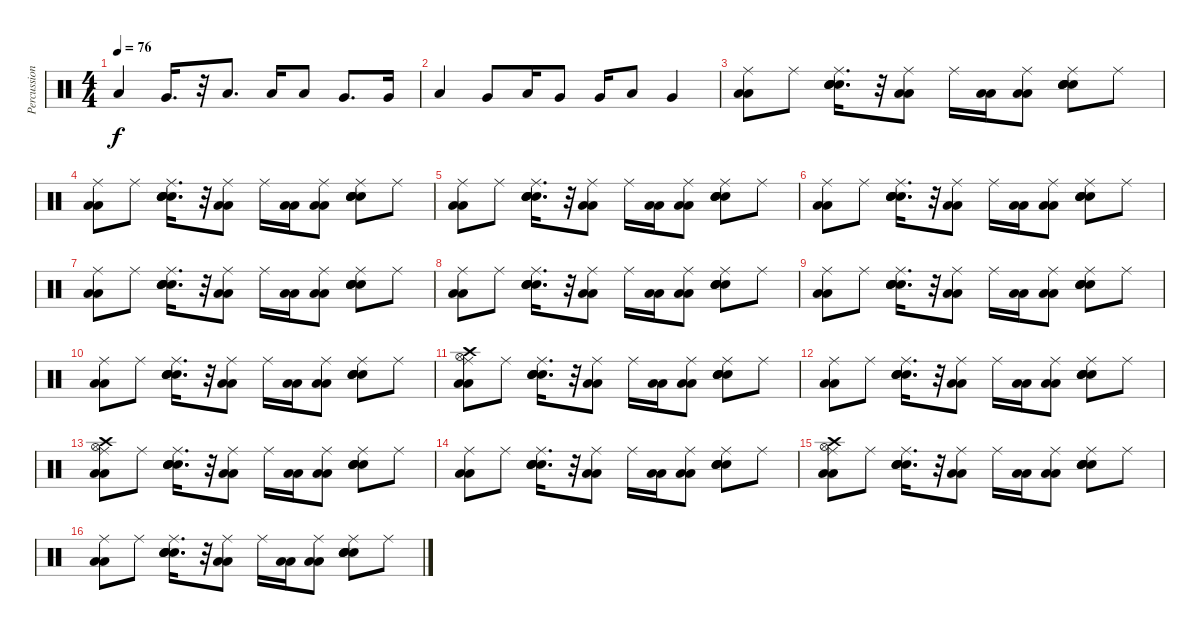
\track ("Percussions" "Percussion") {instrument percussion}
\staff {score}
\articulation defaults
\ts (4 4)
\tempo 76
\clef neutral
\ks c "Low Floor Tom (hit)".4{dy f} "Very Low Tom (hit)".16{d}
r.32 "Low Floor Tom (hit)".8{d} "Low Floor Tom (hit)".16 "Low Floor Tom (hit)".8 "Very Low Tom (hit)".8{d} "Very Low Tom (hit)".16 |
"Low Floor Tom (hit)".4 "Very Low Tom (hit)".8 "Low Floor Tom (hit)".16 "Very Low Tom (hit)".8 "Very Low Tom (hit)".16 "Low Floor Tom (hit)".8 "Very Low Tom (hit)".4 |
("Low Floor Tom (hit)" "Low Floor Tom (hit)" "Ride (middle)").8{volume 7} "Ride (middle)".8 ("Electric Snare (hit)" "Electric Snare (hit)" "Snare (hit) 2" "Ride (middle)" "Snare (hit) 2").16{d} r.32 ("Low Floor Tom (hit)" "Low Floor Tom (hit)" "Ride (middle)").8 "Ride (middle)".16 ("Low Floor Tom (hit)" "Low Floor Tom (hit)").16 ("Low Floor Tom (hit)" "Low Floor Tom (hit)" "Ride (middle)").8 ("Electric Snare (hit)" "Electric Snare (hit)" "Snare (hit) 2" "Ride (middle)" "Snare (hit) 2").8 "Ride (middle)".8 |
("Low Floor Tom (hit)" "Low Floor Tom (hit)" "Ride (middle)").8 "Ride (middle)".8 ("Electric Snare (hit)" "Electric Snare (hit)" "Snare (hit) 2" "Ride (middle)" "Snare (hit) 2").16{d} r.32 ("Low Floor Tom (hit)" "Low Floor Tom (hit)" "Ride (middle)").8 "Ride (middle)".16 ("Low Floor Tom (hit)" "Low Floor Tom (hit)").16 ("Low Floor Tom (hit)" "Low Floor Tom (hit)" "Ride (middle)").8 ("Electric Snare (hit)" "Electric Snare (hit)" "Snare (hit) 2" "Ride (middle)" "Snare (hit) 2").8 "Ride (middle)".8 |
("Low Floor Tom (hit)" "Low Floor Tom (hit)" "Ride (middle)").8 "Ride (middle)".8 ("Electric Snare (hit)" "Electric Snare (hit)" "Snare (hit) 2" "Ride (middle)" "Snare (hit) 2").16{d} r.32 ("Low Floor Tom (hit)" "Low Floor Tom (hit)" "Ride (middle)").8 "Ride (middle)".16 ("Low Floor Tom (hit)" "Low Floor Tom (hit)").16 ("Low Floor Tom (hit)" "Low Floor Tom (hit)" "Ride (middle)").8 ("Electric Snare (hit)" "Electric Snare (hit)" "Snare (hit) 2" "Ride (middle)" "Snare (hit) 2").8 "Ride (middle)".8 |
("Low Floor Tom (hit)" "Low Floor Tom (hit)" "Ride (middle)").8 "Ride (middle)".8 ("Electric Snare (hit)" "Electric Snare (hit)" "Snare (hit) 2" "Ride (middle)" "Snare (hit) 2").16{d} r.32 ("Low Floor Tom (hit)" "Low Floor Tom (hit)" "Ride (middle)").8 "Ride (middle)".16 ("Low Floor Tom (hit)" "Low Floor Tom (hit)").16 ("Low Floor Tom (hit)" "Low Floor Tom (hit)" "Ride (middle)").8 ("Electric Snare (hit)" "Electric Snare (hit)" "Snare (hit) 2" "Ride (middle)" "Snare (hit) 2").8 "Ride (middle)".8 |
("Low Floor Tom (hit)" "Low Floor Tom (hit)" "Ride (middle)").8 "Ride (middle)".8 ("Electric Snare (hit)" "Electric Snare (hit)" "Snare (hit) 2" "Ride (middle)" "Snare (hit) 2").16{d} r.32 ("Low Floor Tom (hit)" "Low Floor Tom (hit)" "Ride (middle)").8 "Ride (middle)".16 ("Low Floor Tom (hit)" "Low Floor Tom (hit)").16 ("Low Floor Tom (hit)" "Low Floor Tom (hit)" "Ride (middle)").8 ("Electric Snare (hit)" "Electric Snare (hit)" "Snare (hit) 2" "Ride (middle)" "Snare (hit) 2").8 "Ride (middle)".8 |
("Low Floor Tom (hit)" "Low Floor Tom (hit)" "Ride (middle)").8 "Ride (middle)".8 ("Electric Snare (hit)" "Electric Snare (hit)" "Snare (hit) 2" "Ride (middle)" "Snare (hit) 2").16{d} r.32 ("Low Floor Tom (hit)" "Low Floor Tom (hit)" "Ride (middle)").8 "Ride (middle)".16 ("Low Floor Tom (hit)" "Low Floor Tom (hit)").16 ("Low Floor Tom (hit)" "Low Floor Tom (hit)" "Ride (middle)").8 ("Electric Snare (hit)" "Electric Snare (hit)" "Snare (hit) 2" "Ride (middle)" "Snare (hit) 2").8 "Ride (middle)".8 |
("Low Floor Tom (hit)" "Low Floor Tom (hit)" "Ride (middle)").8 "Ride (middle)".8 ("Electric Snare (hit)" "Electric Snare (hit)" "Snare (hit) 2" "Ride (middle)" "Snare (hit) 2").16{d} r.32 ("Low Floor Tom (hit)" "Low Floor Tom (hit)" "Ride (middle)").8 "Ride (middle)".16 ("Low Floor Tom (hit)" "Low Floor Tom (hit)").16 ("Low Floor Tom (hit)" "Low Floor Tom (hit)" "Ride (middle)").8 ("Electric Snare (hit)" "Electric Snare (hit)" "Snare (hit) 2" "Ride (middle)" "Snare (hit) 2").8 "Ride (middle)".8 |
("Low Floor Tom (hit)" "Low Floor Tom (hit)" "Ride (middle)").8 "Ride (middle)".8 ("Electric Snare (hit)" "Electric Snare (hit)" "Snare (hit) 2" "Ride (middle)" "Snare (hit) 2").16{d} r.32 ("Low Floor Tom (hit)" "Low Floor Tom (hit)" "Ride (middle)").8 "Ride (middle)".16 ("Low Floor Tom (hit)" "Low Floor Tom (hit)").16 ("Low Floor Tom (hit)" "Low Floor Tom (hit)" "Ride (middle)").8 ("Electric Snare (hit)" "Electric Snare (hit)" "Snare (hit) 2" "Ride (middle)" "Snare (hit) 2").8 "Ride (middle)".8 |
("Hi-Hat (open)" "Low Floor Tom (hit)" "Low Floor Tom (hit)" "Ride (middle)" "Crash high (hit)").8 "Ride (middle)".8 ("Electric Snare (hit)" "Electric Snare (hit)" "Snare (hit) 2" "Ride (middle)" "Snare (hit) 2").16{d} r.32 ("Low Floor Tom (hit)" "Low Floor Tom (hit)" "Ride (middle)").8 "Ride (middle)".16 ("Low Floor Tom (hit)" "Low Floor Tom (hit)").16 ("Low Floor Tom (hit)" "Low Floor Tom (hit)" "Ride (middle)").8 ("Electric Snare (hit)" "Electric Snare (hit)" "Snare (hit) 2" "Ride (middle)" "Snare (hit) 2").8 "Ride (middle)".8 |
("Low Floor Tom (hit)" "Low Floor Tom (hit)" "Ride (middle)").8 "Ride (middle)".8 ("Electric Snare (hit)" "Electric Snare (hit)" "Snare (hit) 2" "Ride (middle)" "Snare (hit) 2").16{d} r.32 ("Low Floor Tom (hit)" "Low Floor Tom (hit)" "Ride (middle)").8 "Ride (middle)".16 ("Low Floor Tom (hit)" "Low Floor Tom (hit)").16 ("Low Floor Tom (hit)" "Low Floor Tom (hit)" "Ride (middle)").8 ("Electric Snare (hit)" "Electric Snare (hit)" "Snare (hit) 2" "Ride (middle)" "Snare (hit) 2").8 "Ride (middle)".8 |
("Hi-Hat (open)" "Low Floor Tom (hit)" "Low Floor Tom (hit)" "Ride (middle)" "Crash high (hit)").8 "Ride (middle)".8 ("Electric Snare (hit)" "Electric Snare (hit)" "Snare (hit) 2" "Ride (middle)" "Snare (hit) 2").16{d} r.32 ("Low Floor Tom (hit)" "Low Floor Tom (hit)" "Ride (middle)").8 "Ride (middle)".16 ("Low Floor Tom (hit)" "Low Floor Tom (hit)").16 ("Low Floor Tom (hit)" "Low Floor Tom (hit)" "Ride (middle)").8 ("Electric Snare (hit)" "Electric Snare (hit)" "Snare (hit) 2" "Ride (middle)" "Snare (hit) 2").8 "Ride (middle)".8 |
("Low Floor Tom (hit)" "Low Floor Tom (hit)" "Ride (middle)").8 "Ride (middle)".8 ("Electric Snare (hit)" "Electric Snare (hit)" "Snare (hit) 2" "Ride (middle)" "Snare (hit) 2").16{d} r.32 ("Low Floor Tom (hit)" "Low Floor Tom (hit)" "Ride (middle)").8 "Ride (middle)".16 ("Low Floor Tom (hit)" "Low Floor Tom (hit)").16 ("Low Floor Tom (hit)" "Low Floor Tom (hit)" "Ride (middle)").8 ("Electric Snare (hit)" "Electric Snare (hit)" "Snare (hit) 2" "Ride (middle)" "Snare (hit) 2").8 "Ride (middle)".8 |
("Hi-Hat (open)" "Low Floor Tom (hit)" "Low Floor Tom (hit)" "Ride (middle)" "Crash high (hit)").8 "Ride (middle)".8 ("Electric Snare (hit)" "Electric Snare (hit)" "Snare (hit) 2" "Ride (middle)" "Snare (hit) 2").16{d} r.32 ("Low Floor Tom (hit)" "Low Floor Tom (hit)" "Ride (middle)").8 "Ride (middle)".16 ("Low Floor Tom (hit)" "Low Floor Tom (hit)").16 ("Low Floor Tom (hit)" "Low Floor Tom (hit)" "Ride (middle)").8 ("Electric Snare (hit)" "Electric Snare (hit)" "Snare (hit) 2" "Ride (middle)" "Snare (hit) 2").8 "Ride (middle)".8 |
("Low Floor Tom (hit)" "Low Floor Tom (hit)" "Ride (middle)").8 "Ride (middle)".8 ("Electric Snare (hit)" "Electric Snare (hit)" "Snare (hit) 2" "Ride (middle)" "Snare (hit) 2").16{d} r.32 ("Low Floor Tom (hit)" "Low Floor Tom (hit)" "Ride (middle)").8 "Ride (middle)".16 ("Low Floor Tom (hit)" "Low Floor Tom (hit)").16 ("Low Floor Tom (hit)" "Low Floor Tom (hit)" "Ride (middle)").8 ("Electric Snare (hit)" "Electric Snare (hit)" "Snare (hit) 2" "Ride (middle)" "Snare (hit) 2").8 "Ride (middle)".8
